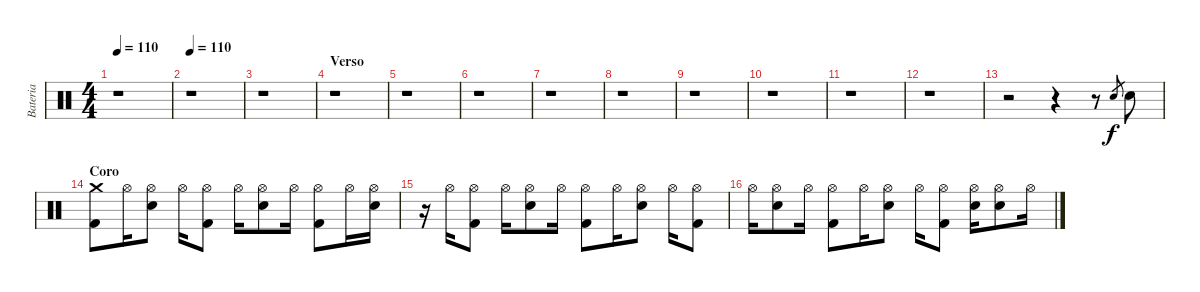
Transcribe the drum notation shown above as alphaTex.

\track ("Bateria" "Bateria") {instrument percussion}
\staff {score}
\articulation defaults
\ts (4 4)
\tempo 110
\clef neutral
\ks c
r.1{dy f} |
\tempo 110
r.1 |
r.1 |
\section ("" "Verso")
r.1 |
r.1 |
r.1 |
r.1 |
r.1 |
r.1 |
r.1 |
r.1 |
r.1 |
r.2 r.4 r.8 "Snare (hit) 2".8{gr} "Snare (hit) 2".8 |
\section ("" "Coro")
("Crash medium (hit)" "Kick (hit) 2").8 "Hi-Hat (open)".16 ("Hi-Hat (open)" "Snare (hit) 2").8 "Hi-Hat (open)".16 ("Hi-Hat (open)" "Kick (hit) 2").8 "Hi-Hat (open)".16 ("Hi-Hat (open)" "Snare (hit) 2").8 "Hi-Hat (open)".16 ("Hi-Hat (open)" "Kick (hit) 2").8 "Hi-Hat (open)".16 ("Hi-Hat (open)" "Snare (hit) 2").16 |
r.16 "Hi-Hat (open)".16 ("Hi-Hat (open)" "Kick (hit) 2").8 "Hi-Hat (open)".16 ("Hi-Hat (open)" "Snare (hit) 2").8 "Hi-Hat (open)".16 ("Hi-Hat (open)" "Kick (hit) 2").8 "Hi-Hat (open)".16 ("Hi-Hat (open)" "Snare (hit) 2").8 "Hi-Hat (open)".16 ("Hi-Hat (open)" "Kick (hit) 2").8 |
"Hi-Hat (open)".16 ("Hi-Hat (open)" "Snare (hit) 2").8 "Hi-Hat (open)".16 ("Hi-Hat (open)" "Kick (hit) 2").8 "Hi-Hat (open)".16 ("Hi-Hat (open)" "Snare (hit) 2").8 "Hi-Hat (open)".16 ("Hi-Hat (open)" "Kick (hit) 2").8 ("Hi-Hat (open)" "Snare (hit) 2").16 ("Hi-Hat (open)" "Snare (hit) 2").8 "Hi-Hat (open)".16
